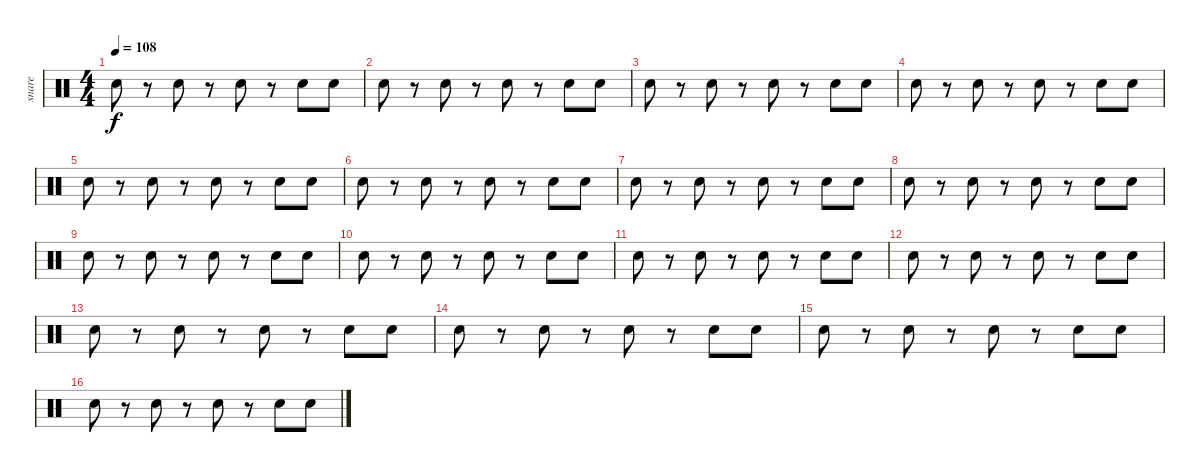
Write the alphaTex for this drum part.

\track ("snare               " "snare     ") {instrument percussion}
\staff {score}
\articulation defaults
\ts (4 4)
\tempo 108
\clef neutral
\ks c "Snare (hit) 2".8{dy f volume 15}
r.8 "Snare (hit) 2".8{volume 15} r.8 "Snare (hit) 2".8{volume 14} r.8 "Snare (hit) 2".8{volume 14} "Snare (hit) 2".8{volume 14} |
"Snare (hit) 2".8 r.8 "Snare (hit) 2".8{volume 14} r.8 "Snare (hit) 2".8{volume 14} r.8 "Snare (hit) 2".8{volume 13} "Snare (hit) 2".8{volume 13} |
"Snare (hit) 2".8{volume 13} r.8 "Snare (hit) 2".8{volume 13} r.8 "Snare (hit) 2".8{volume 12} r.8 "Snare (hit) 2".8{volume 12} "Snare (hit) 2".8 |
"Snare (hit) 2".8{volume 12} r.8 "Snare (hit) 2".8{volume 12} r.8 "Snare (hit) 2".8{volume 12} r.8 "Snare (hit) 2".8{volume 11} "Snare (hit) 2".8{volume 11} |
"Snare (hit) 2".8{volume 11} r.8 "Snare (hit) 2".8{volume 11} r.8 "Snare (hit) 2".8{volume 11} r.8 "Snare (hit) 2".8{volume 10} "Snare (hit) 2".8{volume 10} |
"Snare (hit) 2".8{volume 10} r.8 "Snare (hit) 2".8{volume 10} r.8 "Snare (hit) 2".8{volume 10} r.8 "Snare (hit) 2".8{volume 10} "Snare (hit) 2".8{volume 9} |
"Snare (hit) 2".8{volume 9} r.8 "Snare (hit) 2".8{volume 9} r.8 "Snare (hit) 2".8{volume 9} r.8 "Snare (hit) 2".8{volume 9} "Snare (hit) 2".8{volume 8} |
"Snare (hit) 2".8{volume 8} r.8 "Snare (hit) 2".8{volume 8} r.8 "Snare (hit) 2".8{volume 8} r.8 "Snare (hit) 2".8{volume 8} "Snare (hit) 2".8{volume 8} |
"Snare (hit) 2".8{volume 7} r.8 "Snare (hit) 2".8{volume 7} r.8 "Snare (hit) 2".8{volume 7} r.8 "Snare (hit) 2".8{volume 7} "Snare (hit) 2".8{volume 7} |
"Snare (hit) 2".8{volume 6} r.8 "Snare (hit) 2".8{volume 6} r.8 "Snare (hit) 2".8{volume 6} r.8 "Snare (hit) 2".8{volume 6} "Snare (hit) 2".8{volume 6} |
"Snare (hit) 2".8{volume 6} r.8 "Snare (hit) 2".8{volume 5} r.8 "Snare (hit) 2".8{volume 5} r.8 "Snare (hit) 2".8{volume 5} "Snare (hit) 2".8{volume 5} |
"Snare (hit) 2".8{volume 5} r.8 "Snare (hit) 2".8{volume 4} r.8 "Snare (hit) 2".8{volume 4} r.8 "Snare (hit) 2".8{volume 4} "Snare (hit) 2".8{volume 4} |
"Snare (hit) 2".8{volume 4} r.8 "Snare (hit) 2".8{volume 4} r.8 "Snare (hit) 2".8{volume 3} r.8 "Snare (hit) 2".8{volume 3} "Snare (hit) 2".8{volume 3} |
"Snare (hit) 2".8{volume 3} r.8 "Snare (hit) 2".8{volume 2} r.8 "Snare (hit) 2".8{volume 2} r.8 "Snare (hit) 2".8{volume 2} "Snare (hit) 2".8{volume 2} |
"Snare (hit) 2".8{volume 2} r.8 "Snare (hit) 2".8{volume 2} r.8 "Snare (hit) 2".8{volume 1} r.8 "Snare (hit) 2".8{volume 1} "Snare (hit) 2".8{volume 1} |
"Snare (hit) 2".8{volume 1} r.8 "Snare (hit) 2".8{volume 1} r.8 "Snare (hit) 2".8{volume 0} r.8 "Snare (hit) 2".8{volume 0} "Snare (hit) 2".8{volume 0}
